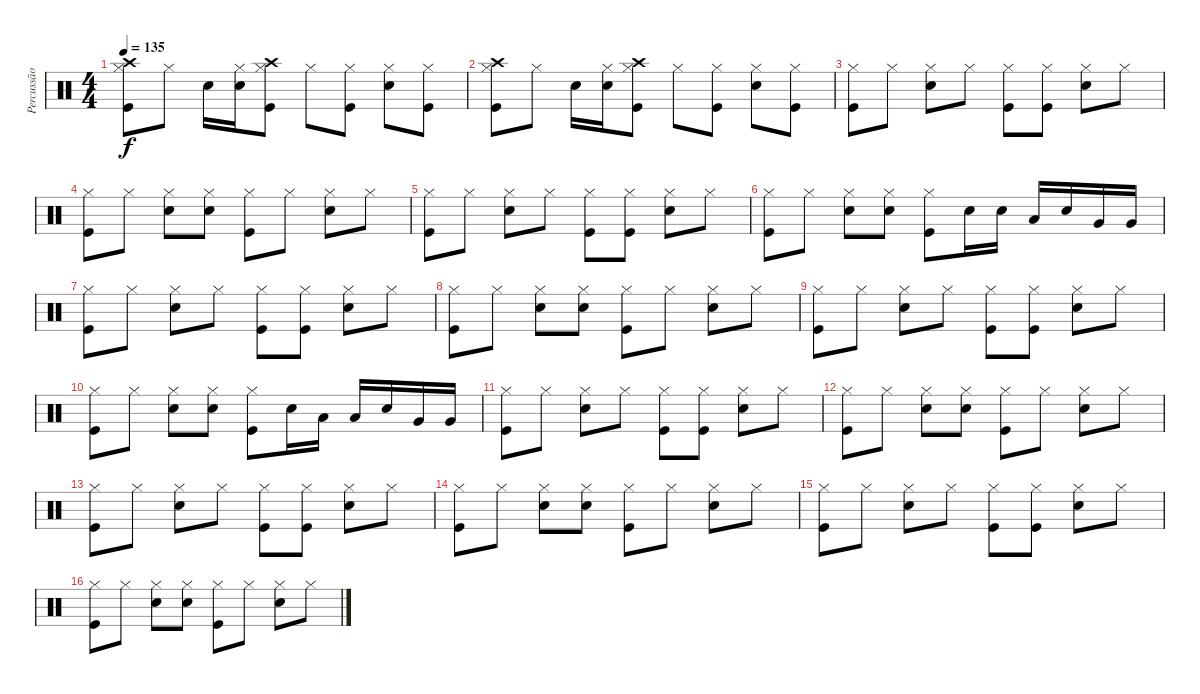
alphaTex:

\track ("Percussão" "Percussão") {instrument percussion}
\staff {score}
\articulation defaults
\ts (4 4)
\tempo 135
\clef neutral
\ks c
("Crash high (hit)" "Hi-Hat (closed)" "Kick (hit)").8{dy f} "Hi-Hat (closed)".8 "Snare (hit) 2".16 ("Hi-Hat (closed)" "Snare (hit) 2").16 ("Crash high (hit)" "Hi-Hat (closed)" "Kick (hit)").8 "Hi-Hat (closed)".8 ("Hi-Hat (closed)" "Kick (hit)").8 ("Hi-Hat (closed)" "Snare (hit) 2").8 ("Hi-Hat (closed)" "Kick (hit)").8 |
("Crash high (hit)" "Hi-Hat (closed)" "Kick (hit)").8 "Hi-Hat (closed)".8 "Snare (hit) 2".16 ("Hi-Hat (closed)" "Snare (hit) 2").16 ("Crash high (hit)" "Hi-Hat (closed)" "Kick (hit)").8 "Hi-Hat (closed)".8 ("Hi-Hat (closed)" "Kick (hit)").8 ("Hi-Hat (closed)" "Snare (hit) 2").8 ("Hi-Hat (closed)" "Kick (hit)").8 |
("Hi-Hat (closed)" "Kick (hit)").8 "Hi-Hat (closed)".8 ("Hi-Hat (closed)" "Snare (hit) 2").8 "Hi-Hat (closed)".8 ("Hi-Hat (closed)" "Kick (hit)").8 ("Hi-Hat (closed)" "Kick (hit)").8 ("Hi-Hat (closed)" "Snare (hit) 2").8 "Hi-Hat (closed)".8 |
("Hi-Hat (closed)" "Kick (hit)").8 "Hi-Hat (closed)".8 ("Hi-Hat (closed)" "Snare (hit) 2").8 ("Hi-Hat (closed)" "Snare (hit) 2").8 ("Hi-Hat (closed)" "Kick (hit)").8 "Hi-Hat (closed)".8 ("Hi-Hat (closed)" "Snare (hit) 2").8 "Hi-Hat (closed)".8 |
("Hi-Hat (closed)" "Kick (hit)").8 "Hi-Hat (closed)".8 ("Hi-Hat (closed)" "Snare (hit) 2").8 "Hi-Hat (closed)".8 ("Hi-Hat (closed)" "Kick (hit)").8 ("Hi-Hat (closed)" "Kick (hit)").8 ("Hi-Hat (closed)" "Snare (hit) 2").8 "Hi-Hat (closed)".8 |
("Hi-Hat (closed)" "Kick (hit)").8 "Hi-Hat (closed)".8 ("Hi-Hat (closed)" "Snare (hit) 2").8 ("Hi-Hat (closed)" "Snare (hit) 2").8 ("Hi-Hat (closed)" "Kick (hit)").8 "Snare (hit) 2".16 "Snare (hit) 2".16 "Low Tom (hit)".16 "Snare (hit) 2".16 "Very Low Tom (hit)".16 "Very Low Tom (hit)".16 |
("Hi-Hat (closed)" "Kick (hit)").8 "Hi-Hat (closed)".8 ("Hi-Hat (closed)" "Snare (hit) 2").8 "Hi-Hat (closed)".8 ("Hi-Hat (closed)" "Kick (hit)").8 ("Hi-Hat (closed)" "Kick (hit)").8 ("Hi-Hat (closed)" "Snare (hit) 2").8 "Hi-Hat (closed)".8 |
("Hi-Hat (closed)" "Kick (hit)").8 "Hi-Hat (closed)".8 ("Hi-Hat (closed)" "Snare (hit) 2").8 ("Hi-Hat (closed)" "Snare (hit) 2").8 ("Hi-Hat (closed)" "Kick (hit)").8 "Hi-Hat (closed)".8 ("Hi-Hat (closed)" "Snare (hit) 2").8 "Hi-Hat (closed)".8 |
("Hi-Hat (closed)" "Kick (hit)").8 "Hi-Hat (closed)".8 ("Hi-Hat (closed)" "Snare (hit) 2").8 "Hi-Hat (closed)".8 ("Hi-Hat (closed)" "Kick (hit)").8 ("Hi-Hat (closed)" "Kick (hit)").8 ("Hi-Hat (closed)" "Snare (hit) 2").8 "Hi-Hat (closed)".8 |
("Hi-Hat (closed)" "Kick (hit)").8 "Hi-Hat (closed)".8 ("Hi-Hat (closed)" "Snare (hit) 2").8 ("Hi-Hat (closed)" "Snare (hit) 2").8 ("Hi-Hat (closed)" "Kick (hit)").8 "Snare (hit) 2".16 "Low Tom (hit)".16 "Low Tom (hit)".16 "Snare (hit) 2".16 "Very Low Tom (hit)".16 "Very Low Tom (hit)".16 |
("Hi-Hat (closed)" "Kick (hit)").8 "Hi-Hat (closed)".8 ("Hi-Hat (closed)" "Snare (hit) 2").8 "Hi-Hat (closed)".8 ("Hi-Hat (closed)" "Kick (hit)").8 ("Hi-Hat (closed)" "Kick (hit)").8 ("Hi-Hat (closed)" "Snare (hit) 2").8 "Hi-Hat (closed)".8 |
("Hi-Hat (closed)" "Kick (hit)").8 "Hi-Hat (closed)".8 ("Hi-Hat (closed)" "Snare (hit) 2").8 ("Hi-Hat (closed)" "Snare (hit) 2").8 ("Hi-Hat (closed)" "Kick (hit)").8 "Hi-Hat (closed)".8 ("Hi-Hat (closed)" "Snare (hit) 2").8 "Hi-Hat (closed)".8 |
("Hi-Hat (closed)" "Kick (hit)").8 "Hi-Hat (closed)".8 ("Hi-Hat (closed)" "Snare (hit) 2").8 "Hi-Hat (closed)".8 ("Hi-Hat (closed)" "Kick (hit)").8 ("Hi-Hat (closed)" "Kick (hit)").8 ("Hi-Hat (closed)" "Snare (hit) 2").8 "Hi-Hat (closed)".8 |
("Hi-Hat (closed)" "Kick (hit)").8 "Hi-Hat (closed)".8 ("Hi-Hat (closed)" "Snare (hit) 2").8 ("Hi-Hat (closed)" "Snare (hit) 2").8 ("Hi-Hat (closed)" "Kick (hit)").8 "Hi-Hat (closed)".8 ("Hi-Hat (closed)" "Snare (hit) 2").8 "Hi-Hat (closed)".8 |
("Hi-Hat (closed)" "Kick (hit)").8 "Hi-Hat (closed)".8 ("Hi-Hat (closed)" "Snare (hit) 2").8 "Hi-Hat (closed)".8 ("Hi-Hat (closed)" "Kick (hit)").8 ("Hi-Hat (closed)" "Kick (hit)").8 ("Hi-Hat (closed)" "Snare (hit) 2").8 "Hi-Hat (closed)".8 |
("Hi-Hat (closed)" "Kick (hit)").8 "Hi-Hat (closed)".8 ("Hi-Hat (closed)" "Snare (hit) 2").8 ("Hi-Hat (closed)" "Snare (hit) 2").8 ("Hi-Hat (closed)" "Kick (hit)").8 "Hi-Hat (closed)".8 ("Hi-Hat (closed)" "Snare (hit) 2").8 "Hi-Hat (closed)".8
